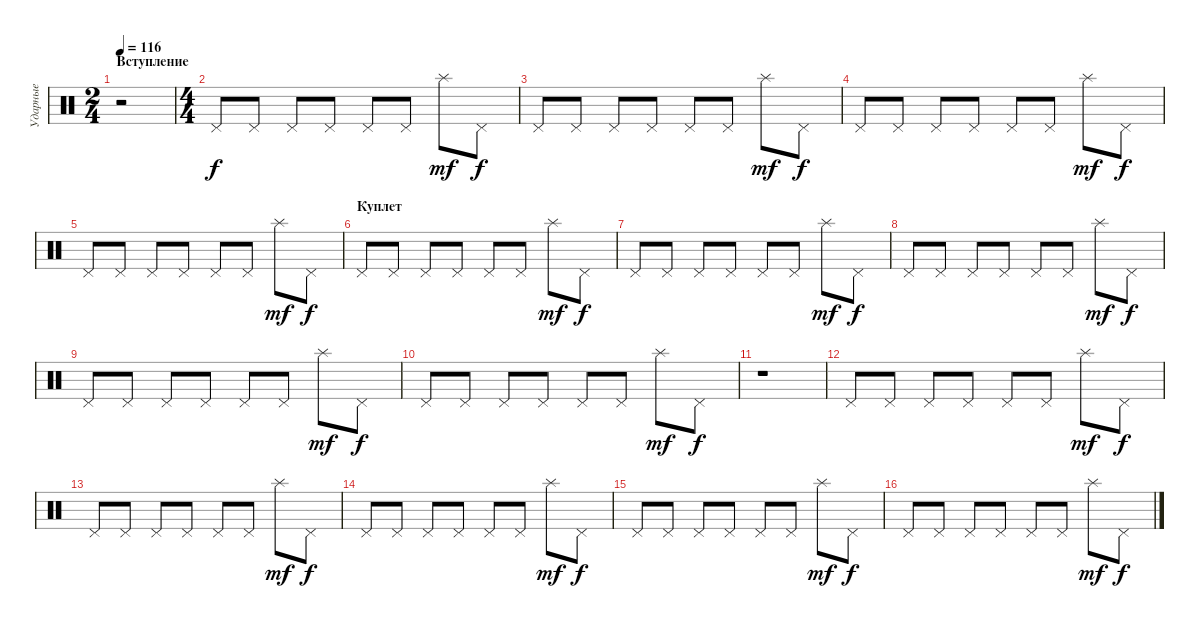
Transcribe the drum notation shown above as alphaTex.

\track ("Ударные" "Ударные") {instrument percussion}
\staff {score}
\articulation defaults
\ts (2 4)
\section ("" "Вступление")
\tempo 116
\clef neutral
\ks c
r.2{dy f} |
\ts (4 4)
"Pedal Hi-Hat (hit)".8 "Pedal Hi-Hat (hit)".8 "Pedal Hi-Hat (hit)".8 "Pedal Hi-Hat (hit)".8 "Pedal Hi-Hat (hit)".8 "Pedal Hi-Hat (hit)".8 "Splash (hit)".8{dy mf} "Pedal Hi-Hat (hit)".8{dy f} |
"Pedal Hi-Hat (hit)".8 "Pedal Hi-Hat (hit)".8 "Pedal Hi-Hat (hit)".8 "Pedal Hi-Hat (hit)".8 "Pedal Hi-Hat (hit)".8 "Pedal Hi-Hat (hit)".8 "Splash (hit)".8{dy mf} "Pedal Hi-Hat (hit)".8{dy f} |
"Pedal Hi-Hat (hit)".8 "Pedal Hi-Hat (hit)".8 "Pedal Hi-Hat (hit)".8 "Pedal Hi-Hat (hit)".8 "Pedal Hi-Hat (hit)".8 "Pedal Hi-Hat (hit)".8 "Splash (hit)".8{dy mf} "Pedal Hi-Hat (hit)".8{dy f} |
"Pedal Hi-Hat (hit)".8 "Pedal Hi-Hat (hit)".8 "Pedal Hi-Hat (hit)".8 "Pedal Hi-Hat (hit)".8 "Pedal Hi-Hat (hit)".8 "Pedal Hi-Hat (hit)".8 "Splash (hit)".8{dy mf} "Pedal Hi-Hat (hit)".8{dy f} |
\section ("" "Куплет")
"Pedal Hi-Hat (hit)".8 "Pedal Hi-Hat (hit)".8 "Pedal Hi-Hat (hit)".8 "Pedal Hi-Hat (hit)".8 "Pedal Hi-Hat (hit)".8 "Pedal Hi-Hat (hit)".8 "Splash (hit)".8{dy mf} "Pedal Hi-Hat (hit)".8{dy f} |
"Pedal Hi-Hat (hit)".8 "Pedal Hi-Hat (hit)".8 "Pedal Hi-Hat (hit)".8 "Pedal Hi-Hat (hit)".8 "Pedal Hi-Hat (hit)".8 "Pedal Hi-Hat (hit)".8 "Splash (hit)".8{dy mf} "Pedal Hi-Hat (hit)".8{dy f} |
"Pedal Hi-Hat (hit)".8 "Pedal Hi-Hat (hit)".8 "Pedal Hi-Hat (hit)".8 "Pedal Hi-Hat (hit)".8 "Pedal Hi-Hat (hit)".8 "Pedal Hi-Hat (hit)".8 "Splash (hit)".8{dy mf} "Pedal Hi-Hat (hit)".8{dy f} |
"Pedal Hi-Hat (hit)".8 "Pedal Hi-Hat (hit)".8 "Pedal Hi-Hat (hit)".8 "Pedal Hi-Hat (hit)".8 "Pedal Hi-Hat (hit)".8 "Pedal Hi-Hat (hit)".8 "Splash (hit)".8{dy mf} "Pedal Hi-Hat (hit)".8{dy f} |
"Pedal Hi-Hat (hit)".8 "Pedal Hi-Hat (hit)".8 "Pedal Hi-Hat (hit)".8 "Pedal Hi-Hat (hit)".8 "Pedal Hi-Hat (hit)".8 "Pedal Hi-Hat (hit)".8 "Splash (hit)".8{dy mf} "Pedal Hi-Hat (hit)".8{dy f} |
r.1 |
"Pedal Hi-Hat (hit)".8 "Pedal Hi-Hat (hit)".8 "Pedal Hi-Hat (hit)".8 "Pedal Hi-Hat (hit)".8 "Pedal Hi-Hat (hit)".8 "Pedal Hi-Hat (hit)".8 "Splash (hit)".8{dy mf} "Pedal Hi-Hat (hit)".8{dy f} |
"Pedal Hi-Hat (hit)".8 "Pedal Hi-Hat (hit)".8 "Pedal Hi-Hat (hit)".8 "Pedal Hi-Hat (hit)".8 "Pedal Hi-Hat (hit)".8 "Pedal Hi-Hat (hit)".8 "Splash (hit)".8{dy mf} "Pedal Hi-Hat (hit)".8{dy f} |
"Pedal Hi-Hat (hit)".8 "Pedal Hi-Hat (hit)".8 "Pedal Hi-Hat (hit)".8 "Pedal Hi-Hat (hit)".8 "Pedal Hi-Hat (hit)".8 "Pedal Hi-Hat (hit)".8 "Splash (hit)".8{dy mf} "Pedal Hi-Hat (hit)".8{dy f} |
"Pedal Hi-Hat (hit)".8 "Pedal Hi-Hat (hit)".8 "Pedal Hi-Hat (hit)".8 "Pedal Hi-Hat (hit)".8 "Pedal Hi-Hat (hit)".8 "Pedal Hi-Hat (hit)".8 "Splash (hit)".8{dy mf} "Pedal Hi-Hat (hit)".8{dy f} |
"Pedal Hi-Hat (hit)".8 "Pedal Hi-Hat (hit)".8 "Pedal Hi-Hat (hit)".8 "Pedal Hi-Hat (hit)".8 "Pedal Hi-Hat (hit)".8 "Pedal Hi-Hat (hit)".8 "Splash (hit)".8{dy mf} "Pedal Hi-Hat (hit)".8{dy f}
